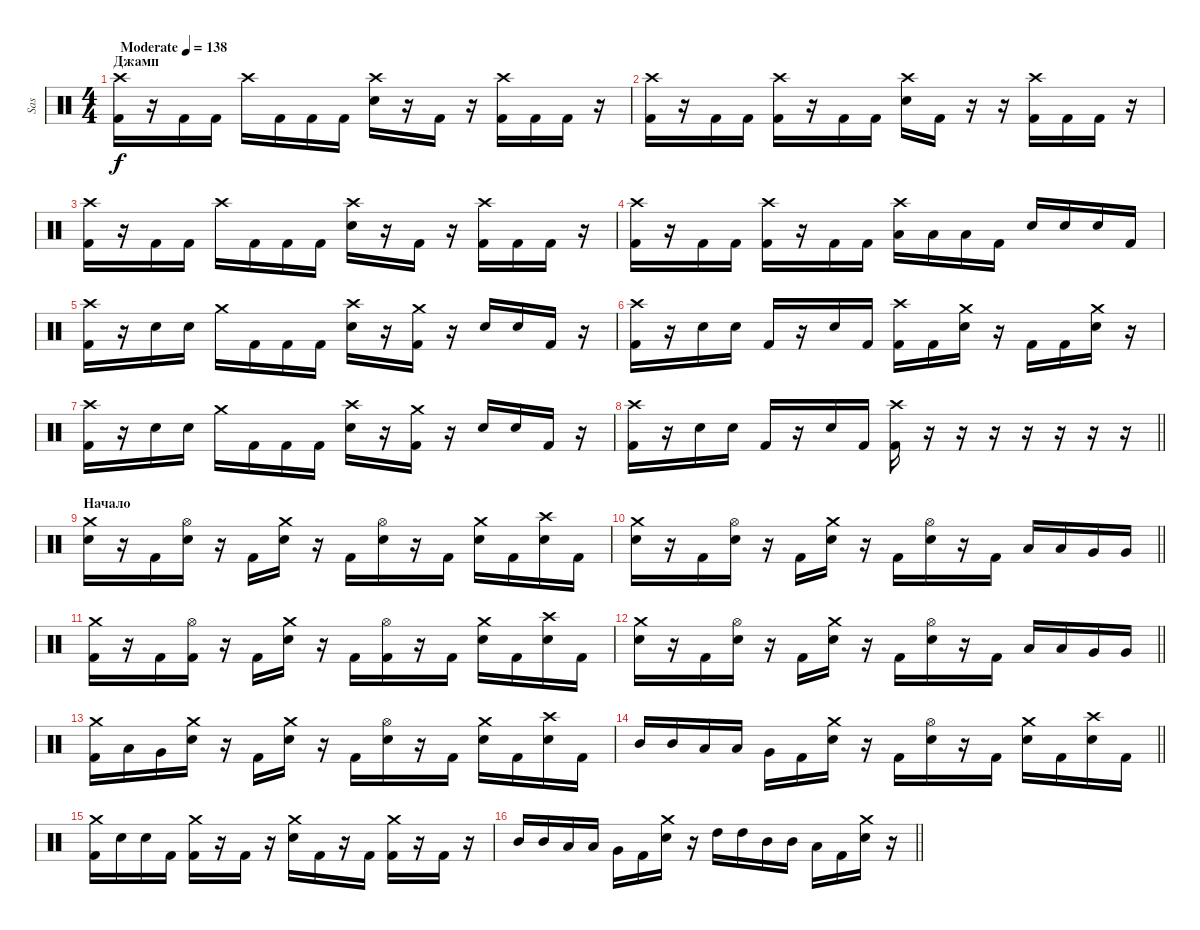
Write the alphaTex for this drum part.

\track ("Sas" "Sas") {instrument percussion}
\staff {score}
\articulation defaults
\ts (4 4)
\section ("" "Джамп")
\tempo (138 "Moderate")
\clef neutral
\ks c
("Crash high (hit)" "Kick (hit) 2").16{dy f} r.16 "Kick (hit) 2".16 "Kick (hit) 2".16 "Crash high (hit)".16 "Kick (hit) 2".16 "Kick (hit) 2".16 "Kick (hit) 2".16 ("Crash high (hit)" "Snare (hit) 2").16 r.16 "Kick (hit) 2".16 r.16 ("Crash high (hit)" "Kick (hit) 2").16 "Kick (hit) 2".16 "Kick (hit) 2".16 r.16 |
("Crash high (hit)" "Kick (hit) 2").16 r.16 "Kick (hit) 2".16 "Kick (hit) 2".16 ("Crash high (hit)" "Kick (hit) 2").16 r.16 "Kick (hit) 2".16 "Kick (hit) 2".16 ("Crash high (hit)" "Snare (hit) 2").16 "Kick (hit) 2".16 r.16 r.16 ("Crash high (hit)" "Kick (hit) 2").16 "Kick (hit) 2".16 "Kick (hit) 2".16 r.16 |
("Crash high (hit)" "Kick (hit) 2").16 r.16 "Kick (hit) 2".16 "Kick (hit) 2".16 "Crash high (hit)".16 "Kick (hit) 2".16 "Kick (hit) 2".16 "Kick (hit) 2".16 ("Crash high (hit)" "Snare (hit) 2").16 r.16 "Kick (hit) 2".16 r.16 ("Crash high (hit)" "Kick (hit) 2").16 "Kick (hit) 2".16 "Kick (hit) 2".16 r.16 |
("Crash high (hit)" "Kick (hit) 2").16 r.16 "Kick (hit) 2".16 "Kick (hit) 2".16 ("Crash high (hit)" "Kick (hit) 2").16 r.16 "Kick (hit) 2".16 "Kick (hit) 2".16 ("Crash high (hit)" "Low Tom (hit)").16 "Low Tom (hit)".16 "Low Tom (hit)".16 "Kick (hit) 2".16 "Snare (hit) 2".16 "Snare (hit) 2".16 "Snare (hit) 2".16 "Kick (hit) 2".16 |
("Crash high (hit)" "Kick (hit) 2").16 r.16 "Snare (hit) 2".16 "Snare (hit) 2".16 "Crash medium (hit)".16 "Kick (hit) 2".16 "Kick (hit) 2".16 "Kick (hit) 2".16 ("Crash high (hit)" "Snare (hit) 2").16 r.16 ("Crash medium (hit)" "Kick (hit) 2").16 r.16 "Snare (hit) 2".16 "Snare (hit) 2".16 "Kick (hit) 2".16 r.16 |
("Crash high (hit)" "Kick (hit) 2").16 r.16 "Snare (hit) 2".16 "Snare (hit) 2".16 "Kick (hit) 2".16 r.16 "Snare (hit) 2".16 "Kick (hit) 2".16 ("Crash high (hit)" "Kick (hit) 2").16 "Kick (hit) 2".16 ("Crash medium (hit)" "Snare (hit) 2").16 r.16 "Kick (hit) 2".16 "Kick (hit) 2".16 ("Crash medium (hit)" "Snare (hit) 2").16 r.16 |
("Crash high (hit)" "Kick (hit) 2").16 r.16 "Snare (hit) 2".16 "Snare (hit) 2".16 "Crash medium (hit)".16 "Kick (hit) 2".16 "Kick (hit) 2".16 "Kick (hit) 2".16 ("Crash high (hit)" "Snare (hit) 2").16 r.16 ("Crash medium (hit)" "Kick (hit) 2").16 r.16 "Snare (hit) 2".16 "Snare (hit) 2".16 "Kick (hit) 2".16 r.16 |
\barLineRight lightlight
("Crash high (hit)" "Kick (hit) 2").16 r.16 "Snare (hit) 2".16 "Snare (hit) 2".16 "Kick (hit) 2".16 r.16 "Snare (hit) 2".16 "Kick (hit) 2".16 ("Crash high (hit)" "Kick (hit) 2").16 r.16 r.16 r.16 r.16 r.16 r.16 r.16 |
\section ("" "Начало")
("Crash medium (hit)" "Snare (hit) 2").16 r.16 "Kick (hit) 2".16 ("Hi-Hat (open)" "Snare (hit) 2").16 r.16 "Kick (hit) 2".16 ("Crash medium (hit)" "Snare (hit) 2").16 r.16 "Kick (hit) 2".16 ("Hi-Hat (open)" "Snare (hit) 2").16 r.16 "Kick (hit) 2".16 ("Crash medium (hit)" "Snare (hit) 2").16 "Kick (hit) 2".16 ("Crash high (hit)" "Snare (hit) 2").16 "Kick (hit) 2".16 |
\barLineRight lightlight
("Crash medium (hit)" "Snare (hit) 2").16 r.16 "Kick (hit) 2".16 ("Hi-Hat (open)" "Snare (hit) 2").16 r.16 "Kick (hit) 2".16 ("Crash medium (hit)" "Snare (hit) 2").16 r.16 "Kick (hit) 2".16 ("Hi-Hat (open)" "Snare (hit) 2").16 r.16 "Kick (hit) 2".16 "Low Tom (hit)".16 "Low Tom (hit)".16 "Very Low Tom (hit)".16 "Very Low Tom (hit)".16 |
("Crash medium (hit)" "Kick (hit) 2").16 r.16 "Kick (hit) 2".16 ("Hi-Hat (open)" "Kick (hit) 2").16 r.16 "Kick (hit) 2".16 ("Crash medium (hit)" "Snare (hit) 2").16 r.16 "Kick (hit) 2".16 ("Hi-Hat (open)" "Kick (hit) 2").16 r.16 "Kick (hit) 2".16 ("Crash medium (hit)" "Snare (hit) 2").16 "Kick (hit) 2".16 ("Crash high (hit)" "Snare (hit) 2").16 "Kick (hit) 2".16 |
\barLineRight lightlight
("Crash medium (hit)" "Snare (hit) 2").16 r.16 "Kick (hit) 2".16 ("Hi-Hat (open)" "Snare (hit) 2").16 r.16 "Kick (hit) 2".16 ("Crash medium (hit)" "Snare (hit) 2").16 r.16 "Kick (hit) 2".16 ("Hi-Hat (open)" "Snare (hit) 2").16 r.16 "Kick (hit) 2".16 "Low Tom (hit)".16 "Low Tom (hit)".16 "Very Low Tom (hit)".16 "Very Low Tom (hit)".16 |
("Crash medium (hit)" "Kick (hit) 2").16 "Low Tom (hit)".16 "Very Low Tom (hit)".16 ("Crash medium (hit)" "Snare (hit) 2").16 r.16 "Kick (hit) 2".16 ("Crash medium (hit)" "Snare (hit) 2").16 r.16 "Kick (hit) 2".16 ("Hi-Hat (open)" "Snare (hit) 2").16 r.16 "Kick (hit) 2".16 ("Crash medium (hit)" "Snare (hit) 2").16 "Kick (hit) 2".16 ("Crash high (hit)" "Snare (hit) 2").16 "Kick (hit) 2".16 |
\barLineRight lightlight "Mid Tom (hit)".16 "Mid Tom (hit)".16 "Low Tom (hit)".16 "Low Tom (hit)".16 "Very Low Tom (hit)".16 "Kick (hit) 2".16
("Crash medium (hit)" "Snare (hit) 2").16 r.16 "Kick (hit) 2".16 ("Hi-Hat (open)" "Snare (hit) 2").16 r.16 "Kick (hit) 2".16 ("Crash medium (hit)" "Snare (hit) 2").16 "Kick (hit) 2".16 ("Crash high (hit)" "Snare (hit) 2").16 "Kick (hit) 2".16 |
("Crash medium (hit)" "Kick (hit) 2").16 "Snare (hit) 2".16 "Snare (hit) 2".16 "Kick (hit) 2".16 ("Crash medium (hit)" "Kick (hit) 2").16 r.16 "Kick (hit) 2".16 r.16 ("Crash medium (hit)" "Snare (hit) 2").16 "Kick (hit) 2".16 r.16 "Kick (hit) 2".16 ("Crash medium (hit)" "Kick (hit) 2").16 r.16 "Kick (hit) 2".16 r.16 |
\barLineRight lightlight "Mid Tom (hit)".16 "Mid Tom (hit)".16 "Low Tom (hit)".16 "Low Tom (hit)".16 "Very Low Tom (hit)".16 "Kick (hit) 2".16
("Crash medium (hit)" "Snare (hit) 2").16 r.16 "High Tom (hit)".16 "High Tom (hit)".16 "Mid Tom (hit)".16 "Mid Tom (hit)".16 "Low Tom (hit)".16 "Kick (hit) 2".16 ("Crash medium (hit)" "Snare (hit) 2").16 r.16
